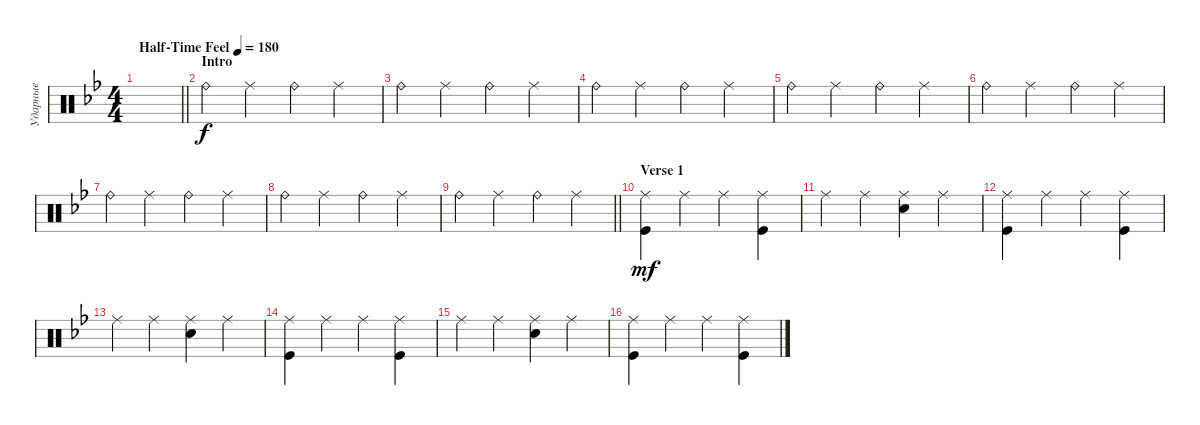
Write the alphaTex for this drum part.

\track ("Ударные" "Ударные") {instrument percussion}
\staff {score}
\articulation defaults
\ts (4 4)
\tempo (180 "Half-Time Feel")
\clef neutral
\barLineRight lightlight
\ks gminor
|
\section ("" "Intro")
"Ride (bell)".4 "Ride (middle)".4 "Ride (bell)".4 "Ride (middle)".4 |
"Ride (bell)".4 "Ride (middle)".4 "Ride (bell)".4 "Ride (middle)".4 |
"Ride (bell)".4 "Ride (middle)".4 "Ride (bell)".4 "Ride (middle)".4 |
"Ride (bell)".4 "Ride (middle)".4 "Ride (bell)".4 "Ride (middle)".4 |
"Ride (bell)".4 "Ride (middle)".4 "Ride (bell)".4 "Ride (middle)".4 |
"Ride (bell)".4 "Ride (middle)".4 "Ride (bell)".4 "Ride (middle)".4 |
"Ride (bell)".4 "Ride (middle)".4 "Ride (bell)".4 "Ride (middle)".4 |
\barLineRight lightlight "Ride (bell)".4 "Ride (middle)".4 "Ride (bell)".4 "Ride (middle)".4
|
\section ("" "Verse 1")
("Ride (middle)" "Kick (hit)").4{dy mf} "Ride (middle)".4 "Ride (middle)".4 ("Ride (middle)" "Kick (hit)").4 |
"Ride (middle)".4 "Ride (middle)".4 ("Ride (middle)" "Snare (hit) 2").4 "Ride (middle)".4 |
("Ride (middle)" "Kick (hit)").4 "Ride (middle)".4 "Ride (middle)".4 ("Ride (middle)" "Kick (hit)").4 |
"Ride (middle)".4 "Ride (middle)".4 ("Ride (middle)" "Snare (hit) 2").4 "Ride (middle)".4 |
("Ride (middle)" "Kick (hit)").4 "Ride (middle)".4 "Ride (middle)".4 ("Ride (middle)" "Kick (hit)").4 |
"Ride (middle)".4 "Ride (middle)".4 ("Ride (middle)" "Snare (hit) 2").4 "Ride (middle)".4 |
("Ride (middle)" "Kick (hit)").4 "Ride (middle)".4 "Ride (middle)".4 ("Ride (middle)" "Kick (hit)").4
